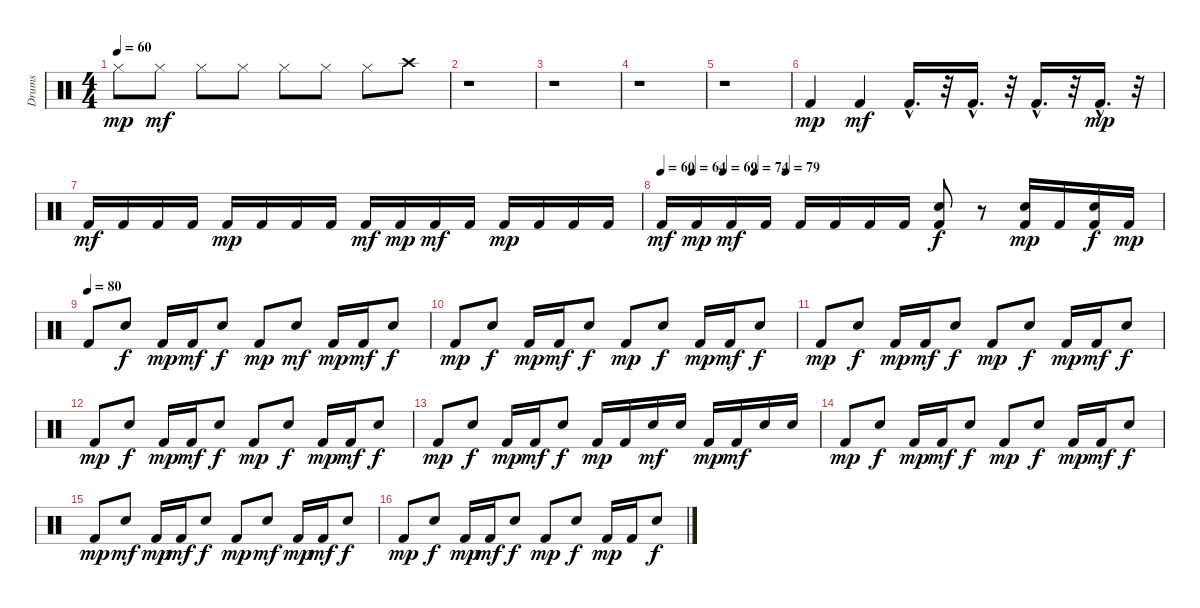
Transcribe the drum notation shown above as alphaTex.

\track ("Drums" "Drums") {instrument percussion}
\staff {score}
\articulation defaults
\ts (4 4)
\tempo 60
\clef neutral
\ks c "Hi-Hat (closed)".8{dy mp} "Hi-Hat (closed)".8{dy mf} "Hi-Hat (closed)".8 "Hi-Hat (closed)".8 "Hi-Hat (closed)".8 "Hi-Hat (closed)".8 "Hi-Hat (closed)".8 "Crash high (hit)".8
|
r.1 |
r.1 |
r.1 |
r.1 |
"Kick (hit) 2".4{dy mp} "Kick (hit) 2".4{dy mf} "Kick (hit) 2"{hac}.16{d} r.32 "Kick (hit) 2"{hac}.16{d} r.32 "Kick (hit) 2"{hac}.16{d} r.32 "Kick (hit) 2"{hac}.16{d dy mp} r.32 |
"Kick (hit) 2".16{dy mf} "Kick (hit) 2".16 "Kick (hit) 2".16 "Kick (hit) 2".16 "Kick (hit) 2".16{dy mp} "Kick (hit) 2".16 "Kick (hit) 2".16 "Kick (hit) 2".16 "Kick (hit) 2".16{dy mf} "Kick (hit) 2".16{dy mp} "Kick (hit) 2".16{dy mf} "Kick (hit) 2".16 "Kick (hit) 2".16{dy mp} "Kick (hit) 2".16 "Kick (hit) 2".16 "Kick (hit) 2".16 |
\tempo 60
\tempo (64 0.0625)
\tempo (69 0.125)
\tempo (74 0.1875)
\tempo (79 0.25)
"Kick (hit) 2".16{dy mf} "Kick (hit) 2".16{dy mp} "Kick (hit) 2".16{dy mf} "Kick (hit) 2".16 "Kick (hit) 2".16 "Kick (hit) 2".16 "Kick (hit) 2".16 "Kick (hit) 2".16 ("Kick (hit) 2" "Snare (hit) 2").8{dy f} r.8 ("Kick (hit) 2" "Snare (hit) 2").16{dy mp} "Kick (hit) 2".16 ("Kick (hit) 2" "Snare (hit) 2").16{dy f} "Kick (hit) 2".16{dy mp} |
\tempo (80)
"Kick (hit) 2".8 "Snare (hit) 2".8{dy f} "Kick (hit) 2".16{dy mp} "Kick (hit) 2".16{dy mf} "Snare (hit) 2".8{dy f} "Kick (hit) 2".8{dy mp} "Snare (hit) 2".8{dy mf} "Kick (hit) 2".16{dy mp} "Kick (hit) 2".16{dy mf} "Snare (hit) 2".8{dy f} |
"Kick (hit) 2".8{dy mp} "Snare (hit) 2".8{dy f} "Kick (hit) 2".16{dy mp} "Kick (hit) 2".16{dy mf} "Snare (hit) 2".8{dy f} "Kick (hit) 2".8{dy mp} "Snare (hit) 2".8{dy f} "Kick (hit) 2".16{dy mp} "Kick (hit) 2".16{dy mf} "Snare (hit) 2".8{dy f} |
"Kick (hit) 2".8{dy mp} "Snare (hit) 2".8{dy f} "Kick (hit) 2".16{dy mp} "Kick (hit) 2".16{dy mf} "Snare (hit) 2".8{dy f} "Kick (hit) 2".8{dy mp} "Snare (hit) 2".8{dy f} "Kick (hit) 2".16{dy mp} "Kick (hit) 2".16{dy mf} "Snare (hit) 2".8{dy f} |
"Kick (hit) 2".8{dy mp} "Snare (hit) 2".8{dy f} "Kick (hit) 2".16{dy mp} "Kick (hit) 2".16{dy mf} "Snare (hit) 2".8{dy f} "Kick (hit) 2".8{dy mp} "Snare (hit) 2".8{dy f} "Kick (hit) 2".16{dy mp} "Kick (hit) 2".16{dy mf} "Snare (hit) 2".8{dy f} |
"Kick (hit) 2".8{dy mp} "Snare (hit) 2".8{dy f} "Kick (hit) 2".16{dy mp} "Kick (hit) 2".16{dy mf} "Snare (hit) 2".8{dy f} "Kick (hit) 2".16{dy mp} "Kick (hit) 2".16 "Snare (hit) 2".16{dy mf} "Snare (hit) 2".16 "Kick (hit) 2".16{dy mp} "Kick (hit) 2".16{dy mf} "Snare (hit) 2".16 "Snare (hit) 2".16 |
"Kick (hit) 2".8{dy mp} "Snare (hit) 2".8{dy f} "Kick (hit) 2".16{dy mp} "Kick (hit) 2".16{dy mf} "Snare (hit) 2".8{dy f} "Kick (hit) 2".8{dy mp} "Snare (hit) 2".8{dy f} "Kick (hit) 2".16{dy mp} "Kick (hit) 2".16{dy mf} "Snare (hit) 2".8{dy f} |
"Kick (hit) 2".8{dy mp} "Snare (hit) 2".8{dy mf} "Kick (hit) 2".16{dy mp} "Kick (hit) 2".16{dy mf} "Snare (hit) 2".8{dy f} "Kick (hit) 2".8{dy mp} "Snare (hit) 2".8{dy mf} "Kick (hit) 2".16{dy mp} "Kick (hit) 2".16{dy mf} "Snare (hit) 2".8{dy f} |
"Kick (hit) 2".8{dy mp} "Snare (hit) 2".8{dy f} "Kick (hit) 2".16{dy mp} "Kick (hit) 2".16{dy mf} "Snare (hit) 2".8{dy f} "Kick (hit) 2".8{dy mp} "Snare (hit) 2".8{dy f} "Kick (hit) 2".16{dy mp} "Kick (hit) 2".16 "Snare (hit) 2".8{dy f}
